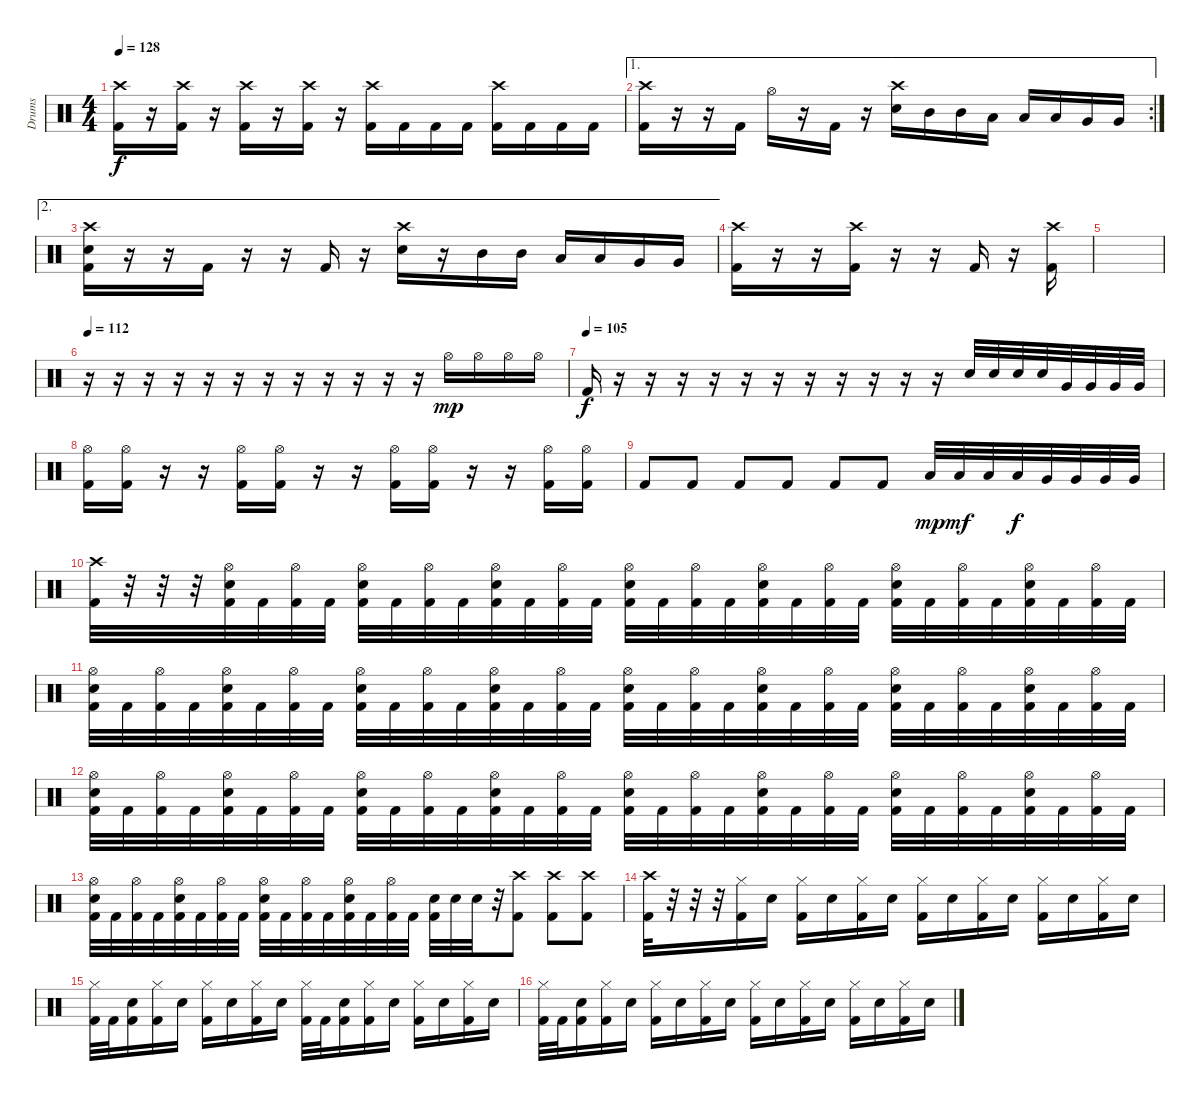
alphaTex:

\track ("Drums" "Drums") {instrument percussion}
\staff {score}
\articulation defaults
\ts (4 4)
\tempo 128
\clef neutral
\ks c
("Crash high (hit)" "Kick (hit) 2").16{dy f} r.16 ("Crash high (hit)" "Kick (hit) 2").16 r.16 ("Crash high (hit)" "Kick (hit) 2").16 r.16 ("Crash high (hit)" "Kick (hit) 2").16 r.16 ("Crash high (hit)" "Kick (hit) 2").16 "Kick (hit) 2".16 "Kick (hit) 2".16 "Kick (hit) 2".16 ("Crash high (hit)" "Kick (hit) 2").16 "Kick (hit) 2".16 "Kick (hit) 2".16 "Kick (hit) 2".16 |
\ae 1
\rc 2
("Crash high (hit)" "Kick (hit) 2").16 r.16 r.16 "Kick (hit) 2".16 "Hi-Hat (open)".16 r.16 "Kick (hit) 2".16 r.16 ("Crash high (hit)" "Electric Snare (hit)").16 "Mid Tom (hit)".16 "Mid Tom (hit)".16 "Low Tom (hit)".16 "Low Tom (hit)".16 "Low Tom (hit)".16 "Very Low Tom (hit)".16 "Very Low Tom (hit)".16 |
\ae 2
("Crash high (hit)" "Electric Snare (hit)" "Kick (hit) 2").16 r.16 r.16 "Kick (hit) 2".16 r.16 r.16 "Kick (hit) 2".16 r.16 ("Crash high (hit)" "Electric Snare (hit)").16 r.16 "Mid Tom (hit)".16 "Mid Tom (hit)".16 "Low Tom (hit)".16 "Low Tom (hit)".16 "Very Low Tom (hit)".16 "Very Low Tom (hit)".16 |
("Crash high (hit)" "Kick (hit) 2").16 r.16 r.16 ("Crash high (hit)" "Kick (hit) 2").16 r.16 r.16 "Kick (hit) 2".16 r.16 ("Crash high (hit)" "Kick (hit) 2").16 |
|
\tempo 112
r.16 r.16 r.16 r.16 r.16 r.16 r.16 r.16 r.16 r.16 r.16 r.16 "Hi-Hat (open)".16{dy mp} "Hi-Hat (open)".16 "Hi-Hat (open)".16 "Hi-Hat (open)".16 |
\tempo (105)
"Kick (hit) 2".16{dy f} r.16 r.16 r.16 r.16 r.16 r.16 r.16 r.16 r.16 r.16 r.16 "Electric Snare (hit)".32 "Electric Snare (hit)".32 "Electric Snare (hit)".32 "Electric Snare (hit)".32 "Very Low Tom (hit)".32 "Very Low Tom (hit)".32 "Very Low Tom (hit)".32 "Very Low Tom (hit)".32 |
("Hi-Hat (open)" "Kick (hit) 2").16 ("Hi-Hat (open)" "Kick (hit) 2").16 r.16 r.16 ("Hi-Hat (open)" "Kick (hit) 2").16 ("Hi-Hat (open)" "Kick (hit) 2").16 r.16 r.16 ("Hi-Hat (open)" "Kick (hit) 2").16 ("Hi-Hat (open)" "Kick (hit) 2").16 r.16 r.16 ("Hi-Hat (open)" "Kick (hit) 2").16 ("Hi-Hat (open)" "Kick (hit) 2").16 |
"Kick (hit) 2".8 "Kick (hit) 2".8 "Kick (hit) 2".8 "Kick (hit) 2".8 "Kick (hit) 2".8 "Kick (hit) 2".8 "Low Tom (hit)".32{dy mp} "Low Tom (hit)".32{dy mf} "Low Tom (hit)".32 "Low Tom (hit)".32{dy f} "Very Low Tom (hit)".32 "Very Low Tom (hit)".32 "Very Low Tom (hit)".32 "Very Low Tom (hit)".32 |
("Crash high (hit)" "Kick (hit) 2").32 r.32 r.32 r.32 ("Hi-Hat (open)" "Electric Snare (hit)" "Kick (hit) 2").32 "Kick (hit) 2".32 ("Hi-Hat (open)" "Kick (hit) 2").32 "Kick (hit) 2".32 ("Hi-Hat (open)" "Electric Snare (hit)" "Kick (hit) 2").32 "Kick (hit) 2".32 ("Hi-Hat (open)" "Kick (hit) 2").32 "Kick (hit) 2".32 ("Hi-Hat (open)" "Electric Snare (hit)" "Kick (hit) 2").32 "Kick (hit) 2".32 ("Hi-Hat (open)" "Kick (hit) 2").32 "Kick (hit) 2".32 ("Hi-Hat (open)" "Electric Snare (hit)" "Kick (hit) 2").32 "Kick (hit) 2".32 ("Hi-Hat (open)" "Kick (hit) 2").32 "Kick (hit) 2".32 ("Hi-Hat (open)" "Electric Snare (hit)" "Kick (hit) 2").32 "Kick (hit) 2".32 ("Hi-Hat (open)" "Kick (hit) 2").32 "Kick (hit) 2".32 ("Hi-Hat (open)" "Electric Snare (hit)" "Kick (hit) 2").32 "Kick (hit) 2".32 ("Hi-Hat (open)" "Kick (hit) 2").32 "Kick (hit) 2".32 ("Hi-Hat (open)" "Electric Snare (hit)" "Kick (hit) 2").32 "Kick (hit) 2".32 ("Hi-Hat (open)" "Kick (hit) 2").32 "Kick (hit) 2".32 |
("Hi-Hat (open)" "Electric Snare (hit)" "Kick (hit) 2").32 "Kick (hit) 2".32 ("Hi-Hat (open)" "Kick (hit) 2").32 "Kick (hit) 2".32 ("Hi-Hat (open)" "Electric Snare (hit)" "Kick (hit) 2").32 "Kick (hit) 2".32 ("Hi-Hat (open)" "Kick (hit) 2").32 "Kick (hit) 2".32 ("Hi-Hat (open)" "Electric Snare (hit)" "Kick (hit) 2").32 "Kick (hit) 2".32 ("Hi-Hat (open)" "Kick (hit) 2").32 "Kick (hit) 2".32 ("Hi-Hat (open)" "Electric Snare (hit)" "Kick (hit) 2").32 "Kick (hit) 2".32 ("Hi-Hat (open)" "Kick (hit) 2").32 "Kick (hit) 2".32 ("Hi-Hat (open)" "Electric Snare (hit)" "Kick (hit) 2").32 "Kick (hit) 2".32 ("Hi-Hat (open)" "Kick (hit) 2").32 "Kick (hit) 2".32 ("Hi-Hat (open)" "Electric Snare (hit)" "Kick (hit) 2").32 "Kick (hit) 2".32 ("Hi-Hat (open)" "Kick (hit) 2").32 "Kick (hit) 2".32 ("Hi-Hat (open)" "Electric Snare (hit)" "Kick (hit) 2").32 "Kick (hit) 2".32 ("Hi-Hat (open)" "Kick (hit) 2").32 "Kick (hit) 2".32 ("Hi-Hat (open)" "Electric Snare (hit)" "Kick (hit) 2").32 "Kick (hit) 2".32 ("Hi-Hat (open)" "Kick (hit) 2").32 "Kick (hit) 2".32 |
("Hi-Hat (open)" "Electric Snare (hit)" "Kick (hit) 2").32 "Kick (hit) 2".32 ("Hi-Hat (open)" "Kick (hit) 2").32 "Kick (hit) 2".32 ("Hi-Hat (open)" "Electric Snare (hit)" "Kick (hit) 2").32 "Kick (hit) 2".32 ("Hi-Hat (open)" "Kick (hit) 2").32 "Kick (hit) 2".32 ("Hi-Hat (open)" "Electric Snare (hit)" "Kick (hit) 2").32 "Kick (hit) 2".32 ("Hi-Hat (open)" "Kick (hit) 2").32 "Kick (hit) 2".32 ("Hi-Hat (open)" "Electric Snare (hit)" "Kick (hit) 2").32 "Kick (hit) 2".32 ("Hi-Hat (open)" "Kick (hit) 2").32 "Kick (hit) 2".32 ("Hi-Hat (open)" "Electric Snare (hit)" "Kick (hit) 2").32 "Kick (hit) 2".32 ("Hi-Hat (open)" "Kick (hit) 2").32 "Kick (hit) 2".32 ("Hi-Hat (open)" "Electric Snare (hit)" "Kick (hit) 2").32 "Kick (hit) 2".32 ("Hi-Hat (open)" "Kick (hit) 2").32 "Kick (hit) 2".32 ("Hi-Hat (open)" "Electric Snare (hit)" "Kick (hit) 2").32 "Kick (hit) 2".32 ("Hi-Hat (open)" "Kick (hit) 2").32 "Kick (hit) 2".32 ("Hi-Hat (open)" "Electric Snare (hit)" "Kick (hit) 2").32 "Kick (hit) 2".32 ("Hi-Hat (open)" "Kick (hit) 2").32 "Kick (hit) 2".32 |
("Hi-Hat (open)" "Electric Snare (hit)" "Kick (hit) 2").32 "Kick (hit) 2".32 ("Hi-Hat (open)" "Kick (hit) 2").32 "Kick (hit) 2".32 ("Hi-Hat (open)" "Electric Snare (hit)" "Kick (hit) 2").32 "Kick (hit) 2".32 ("Hi-Hat (open)" "Kick (hit) 2").32 "Kick (hit) 2".32 ("Hi-Hat (open)" "Electric Snare (hit)" "Kick (hit) 2").32 "Kick (hit) 2".32 ("Hi-Hat (open)" "Kick (hit) 2").32 "Kick (hit) 2".32 ("Hi-Hat (open)" "Electric Snare (hit)" "Kick (hit) 2").32 "Kick (hit) 2".32 ("Hi-Hat (open)" "Kick (hit) 2").32 "Kick (hit) 2".32 ("Electric Snare (hit)" "Kick (hit) 2").32 "Electric Snare (hit)".32 "Electric Snare (hit)".32 r.32 ("Crash high (hit)" "Kick (hit) 2").8 ("Crash high (hit)" "Kick (hit) 2").8 ("Crash high (hit)" "Kick (hit) 2").8 |
("Crash high (hit)" "Kick (hit) 2").32 r.32 r.32 r.32 ("Hi-Hat (closed)" "Kick (hit) 2").16 "Electric Snare (hit)".16 ("Hi-Hat (closed)" "Kick (hit) 2").16 "Electric Snare (hit)".16 ("Hi-Hat (closed)" "Kick (hit) 2").16 "Electric Snare (hit)".16 ("Hi-Hat (closed)" "Kick (hit) 2").16 "Electric Snare (hit)".16 ("Hi-Hat (closed)" "Kick (hit) 2").16 "Electric Snare (hit)".16 ("Hi-Hat (closed)" "Kick (hit) 2").16 "Electric Snare (hit)".16 ("Hi-Hat (closed)" "Kick (hit) 2").16 "Electric Snare (hit)".16 |
("Hi-Hat (closed)" "Kick (hit) 2").32 "Kick (hit) 2".32 ("Electric Snare (hit)" "Kick (hit) 2").16 ("Hi-Hat (closed)" "Kick (hit) 2").16 "Electric Snare (hit)".16 ("Hi-Hat (closed)" "Kick (hit) 2").16 "Electric Snare (hit)".16 ("Hi-Hat (closed)" "Kick (hit) 2").16 "Electric Snare (hit)".16 ("Hi-Hat (closed)" "Kick (hit) 2").32 "Kick (hit) 2".32 ("Electric Snare (hit)" "Kick (hit) 2").16 ("Hi-Hat (closed)" "Kick (hit) 2").16 "Electric Snare (hit)".16 ("Hi-Hat (closed)" "Kick (hit) 2").16 "Electric Snare (hit)".16 ("Hi-Hat (closed)" "Kick (hit) 2").16 "Electric Snare (hit)".16 |
("Hi-Hat (closed)" "Kick (hit) 2").32 "Kick (hit) 2".32 ("Electric Snare (hit)" "Kick (hit) 2").16 ("Hi-Hat (closed)" "Kick (hit) 2").16 "Electric Snare (hit)".16 ("Hi-Hat (closed)" "Kick (hit) 2").16 "Electric Snare (hit)".16 ("Hi-Hat (closed)" "Kick (hit) 2").16 "Electric Snare (hit)".16 ("Hi-Hat (closed)" "Kick (hit) 2").16 "Electric Snare (hit)".16 ("Hi-Hat (closed)" "Kick (hit) 2").16 "Electric Snare (hit)".16 ("Hi-Hat (closed)" "Kick (hit) 2").16 "Electric Snare (hit)".16 ("Hi-Hat (closed)" "Kick (hit) 2").16 "Electric Snare (hit)".16
